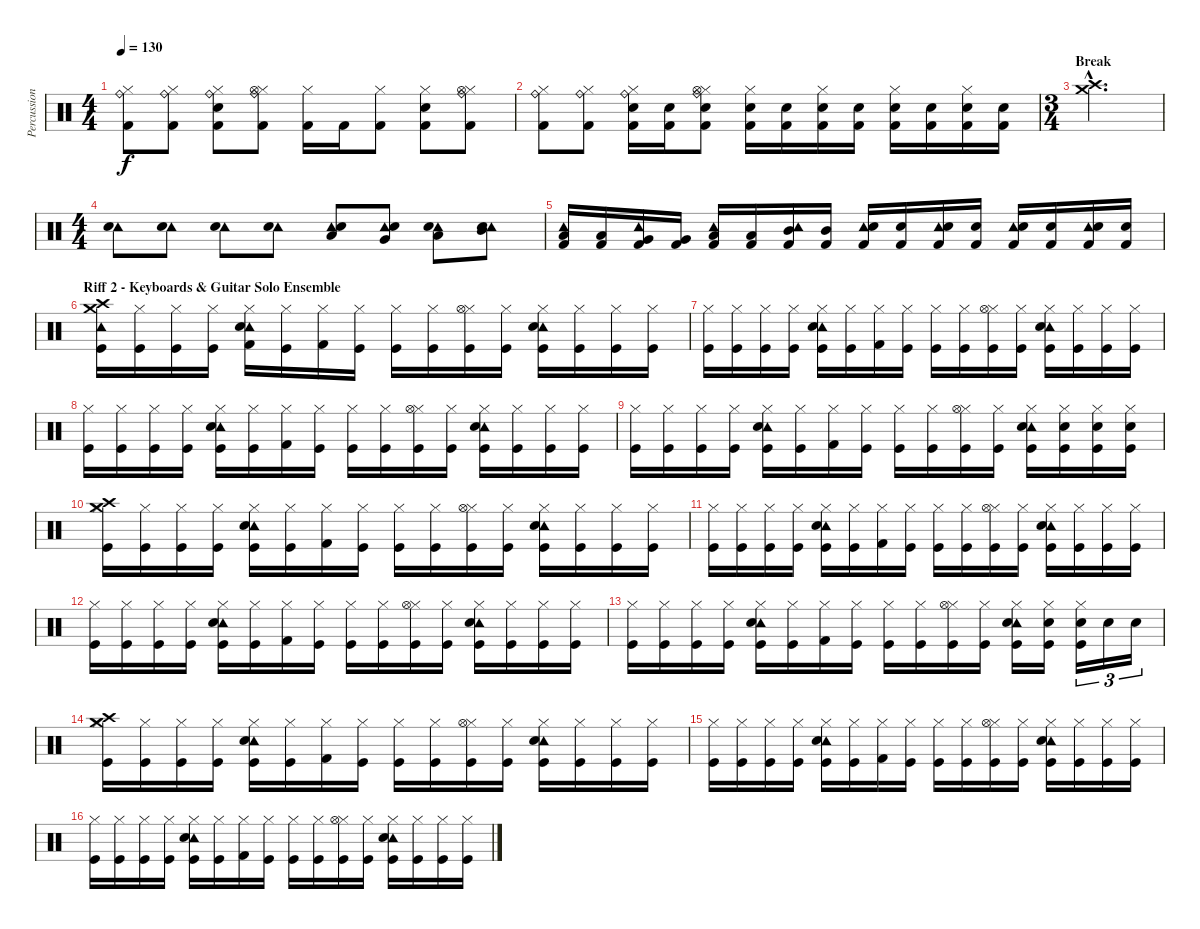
\track ("Percussion" "Percussion") {instrument percussion}
\staff {score}
\articulation defaults
\ts (4 4)
\tempo 130
\clef neutral
\ks c
("Hi-Hat (closed)" "Ride (bell)" "Kick (hit) 2").8{dy f} ("Hi-Hat (closed)" "Ride (bell)" "Kick (hit) 2").8 ("Hi-Hat (closed)" "Ride (bell)" "Electric Snare (hit)" "Kick (hit) 2").8 ("Hi-Hat (closed)" "Ride (bell)" "Hi-Hat (open)" "Kick (hit) 2").8 ("Hi-Hat (closed)" "Kick (hit) 2").16 "Kick (hit) 2".16 ("Hi-Hat (closed)" "Kick (hit) 2").8 ("Hi-Hat (closed)" "Electric Snare (hit)" "Kick (hit) 2").8 ("Hi-Hat (closed)" "Ride (bell)" "Hi-Hat (open)" "Kick (hit) 2").8 |
("Hi-Hat (closed)" "Ride (bell)" "Kick (hit) 2").8 ("Hi-Hat (closed)" "Ride (bell)" "Kick (hit) 2").8 ("Hi-Hat (closed)" "Ride (bell)" "Electric Snare (hit)" "Kick (hit) 2").16 ("Electric Snare (hit)" "Kick (hit) 2").16 ("Hi-Hat (closed)" "Ride (bell)" "Hi-Hat (open)" "Electric Snare (hit)" "Kick (hit) 2").8 ("Hi-Hat (closed)" "Electric Snare (hit)" "Kick (hit) 2").16 ("Electric Snare (hit)" "Kick (hit) 2").16 ("Hi-Hat (closed)" "Electric Snare (hit)" "Kick (hit) 2").16 ("Electric Snare (hit)" "Kick (hit) 2").16 ("Hi-Hat (closed)" "Electric Snare (hit)" "Kick (hit) 2").16 ("Electric Snare (hit)" "Kick (hit) 2").16 ("Hi-Hat (closed)" "Electric Snare (hit)" "Kick (hit) 2").16 ("Electric Snare (hit)" "Kick (hit) 2").16 |
\ts (3 4)
\section ("" "Break")
("Crash medium (hit)"{hac} "Crash high (hit)"{hac}).2{d} |
\ts (4 4)
("Tambourine (hit)" "Electric Snare (hit)").8 ("Tambourine (hit)" "Electric Snare (hit)").8 ("Tambourine (hit)" "Electric Snare (hit)").8 ("Tambourine (hit)" "Electric Snare (hit)").8 ("Low Floor Tom (hit)" "Tambourine (hit)" "Electric Snare (hit)").8 ("Very Low Tom (hit)" "Tambourine (hit)" "Electric Snare (hit)").8 ("Low Tom (hit)" "Tambourine (hit)" "Electric Snare (hit)").8 ("Mid Tom (hit)" "Tambourine (hit)" "Electric Snare (hit)").8 |
("Tambourine (hit)" "Kick (hit) 2" "Low Floor Tom (hit)").16 ("Kick (hit) 2" "Low Floor Tom (hit)").16 ("Tambourine (hit)" "Kick (hit) 2" "Very Low Tom (hit)").16 ("Kick (hit) 2" "Very Low Tom (hit)").16 ("Tambourine (hit)" "Kick (hit) 2" "Low Tom (hit)").16 ("Kick (hit) 2" "Low Tom (hit)").16 ("Tambourine (hit)" "Kick (hit) 2" "Mid Tom (hit)").16 ("Kick (hit) 2" "Mid Tom (hit)").16 ("Tambourine (hit)" "Kick (hit) 2" "Snare (hit) 2").16 ("Kick (hit) 2" "Snare (hit) 2").16 ("Tambourine (hit)" "Kick (hit) 2" "Snare (hit) 2").16 ("Kick (hit) 2" "Snare (hit) 2").16 ("Tambourine (hit)" "Kick (hit) 2" "Electric Snare (hit)").16 ("Kick (hit) 2" "Electric Snare (hit)").16 ("Tambourine (hit)" "Kick (hit) 2" "Electric Snare (hit)").16 ("Kick (hit) 2" "Electric Snare (hit)").16 |
\section ("" "Riff 2 - Keyboards & Guitar Solo Ensemble")
("Tambourine (hit)" "Crash medium (hit)" "Crash high (hit)" "Kick (hit)").16 ("Hi-Hat (closed)" "Kick (hit)").16 ("Hi-Hat (closed)" "Kick (hit)").16 ("Hi-Hat (closed)" "Kick (hit)").16 ("Hi-Hat (closed)" "Tambourine (hit)" "Electric Snare (hit)" "Kick (hit) 2").16 ("Hi-Hat (closed)" "Kick (hit)").16 ("Hi-Hat (closed)" "Kick (hit) 2").16 ("Hi-Hat (closed)" "Kick (hit)").16 ("Hi-Hat (closed)" "Kick (hit)").16 ("Hi-Hat (closed)" "Kick (hit)").16 ("Hi-Hat (closed)" "Hi-Hat (open)" "Kick (hit)").16 ("Hi-Hat (closed)" "Kick (hit)").16 ("Hi-Hat (closed)" "Tambourine (hit)" "Electric Snare (hit)" "Kick (hit)").16 ("Hi-Hat (closed)" "Kick (hit)").16 ("Hi-Hat (closed)" "Kick (hit)").16 ("Hi-Hat (closed)" "Kick (hit)").16 |
("Hi-Hat (closed)" "Kick (hit)").16 ("Hi-Hat (closed)" "Kick (hit)").16 ("Hi-Hat (closed)" "Kick (hit)").16 ("Hi-Hat (closed)" "Kick (hit)").16 ("Hi-Hat (closed)" "Tambourine (hit)" "Electric Snare (hit)" "Kick (hit)").16 ("Hi-Hat (closed)" "Kick (hit)").16 ("Hi-Hat (closed)" "Kick (hit) 2").16 ("Hi-Hat (closed)" "Kick (hit)").16 ("Hi-Hat (closed)" "Kick (hit)").16 ("Hi-Hat (closed)" "Kick (hit)").16 ("Hi-Hat (closed)" "Hi-Hat (open)" "Kick (hit)").16 ("Hi-Hat (closed)" "Kick (hit)").16 ("Hi-Hat (closed)" "Tambourine (hit)" "Electric Snare (hit)" "Kick (hit)").16 ("Hi-Hat (closed)" "Kick (hit)").16 ("Hi-Hat (closed)" "Kick (hit)").16 ("Hi-Hat (closed)" "Kick (hit)").16 |
("Hi-Hat (closed)" "Kick (hit)").16 ("Hi-Hat (closed)" "Kick (hit)").16 ("Hi-Hat (closed)" "Kick (hit)").16 ("Hi-Hat (closed)" "Kick (hit)").16 ("Hi-Hat (closed)" "Tambourine (hit)" "Electric Snare (hit)" "Kick (hit)").16 ("Hi-Hat (closed)" "Kick (hit)").16 ("Hi-Hat (closed)" "Kick (hit) 2").16 ("Hi-Hat (closed)" "Kick (hit)").16 ("Hi-Hat (closed)" "Kick (hit)").16 ("Hi-Hat (closed)" "Kick (hit)").16 ("Hi-Hat (closed)" "Hi-Hat (open)" "Kick (hit)").16 ("Hi-Hat (closed)" "Kick (hit)").16 ("Hi-Hat (closed)" "Tambourine (hit)" "Electric Snare (hit)" "Kick (hit)").16 ("Hi-Hat (closed)" "Kick (hit)").16 ("Hi-Hat (closed)" "Kick (hit)").16 ("Hi-Hat (closed)" "Kick (hit)").16 |
("Hi-Hat (closed)" "Kick (hit)").16 ("Hi-Hat (closed)" "Kick (hit)").16 ("Hi-Hat (closed)" "Kick (hit)").16 ("Hi-Hat (closed)" "Kick (hit)").16 ("Hi-Hat (closed)" "Tambourine (hit)" "Electric Snare (hit)" "Kick (hit)").16 ("Hi-Hat (closed)" "Kick (hit)").16 ("Hi-Hat (closed)" "Kick (hit) 2").16 ("Hi-Hat (closed)" "Kick (hit)").16 ("Hi-Hat (closed)" "Kick (hit)").16 ("Hi-Hat (closed)" "Kick (hit)").16 ("Hi-Hat (closed)" "Hi-Hat (open)" "Kick (hit)").16 ("Hi-Hat (closed)" "Kick (hit)").16 ("Hi-Hat (closed)" "Tambourine (hit)" "Electric Snare (hit)" "Kick (hit)").16 ("Hi-Hat (closed)" "Electric Snare (hit)" "Kick (hit)").16 ("Hi-Hat (closed)" "Electric Snare (hit)" "Kick (hit)").16 ("Hi-Hat (closed)" "Electric Snare (hit)" "Kick (hit)").16 |
("Hi-Hat (closed)" "Crash medium (hit)" "Crash high (hit)" "Kick (hit)").16 ("Hi-Hat (closed)" "Kick (hit)").16 ("Hi-Hat (closed)" "Kick (hit)").16 ("Hi-Hat (closed)" "Kick (hit)").16 ("Hi-Hat (closed)" "Tambourine (hit)" "Electric Snare (hit)" "Kick (hit)").16 ("Hi-Hat (closed)" "Kick (hit)").16 ("Hi-Hat (closed)" "Kick (hit) 2").16 ("Hi-Hat (closed)" "Kick (hit)").16 ("Hi-Hat (closed)" "Kick (hit)").16 ("Hi-Hat (closed)" "Kick (hit)").16 ("Hi-Hat (closed)" "Hi-Hat (open)" "Kick (hit)").16 ("Hi-Hat (closed)" "Kick (hit)").16 ("Hi-Hat (closed)" "Tambourine (hit)" "Electric Snare (hit)" "Kick (hit)").16 ("Hi-Hat (closed)" "Kick (hit)").16 ("Hi-Hat (closed)" "Kick (hit)").16 ("Hi-Hat (closed)" "Kick (hit)").16 |
("Hi-Hat (closed)" "Kick (hit)").16 ("Hi-Hat (closed)" "Kick (hit)").16 ("Hi-Hat (closed)" "Kick (hit)").16 ("Hi-Hat (closed)" "Kick (hit)").16 ("Hi-Hat (closed)" "Tambourine (hit)" "Electric Snare (hit)" "Kick (hit)").16 ("Hi-Hat (closed)" "Kick (hit)").16 ("Hi-Hat (closed)" "Kick (hit) 2").16 ("Hi-Hat (closed)" "Kick (hit)").16 ("Hi-Hat (closed)" "Kick (hit)").16 ("Hi-Hat (closed)" "Kick (hit)").16 ("Hi-Hat (closed)" "Hi-Hat (open)" "Kick (hit)").16 ("Hi-Hat (closed)" "Kick (hit)").16 ("Hi-Hat (closed)" "Tambourine (hit)" "Electric Snare (hit)" "Kick (hit)").16 ("Hi-Hat (closed)" "Kick (hit)").16 ("Hi-Hat (closed)" "Kick (hit)").16 ("Hi-Hat (closed)" "Kick (hit)").16 |
("Hi-Hat (closed)" "Kick (hit)").16 ("Hi-Hat (closed)" "Kick (hit)").16 ("Hi-Hat (closed)" "Kick (hit)").16 ("Hi-Hat (closed)" "Kick (hit)").16 ("Hi-Hat (closed)" "Tambourine (hit)" "Electric Snare (hit)" "Kick (hit)").16 ("Hi-Hat (closed)" "Kick (hit)").16 ("Hi-Hat (closed)" "Kick (hit) 2").16 ("Hi-Hat (closed)" "Kick (hit)").16 ("Hi-Hat (closed)" "Kick (hit)").16 ("Hi-Hat (closed)" "Kick (hit)").16 ("Hi-Hat (closed)" "Hi-Hat (open)" "Kick (hit)").16 ("Hi-Hat (closed)" "Kick (hit)").16 ("Hi-Hat (closed)" "Tambourine (hit)" "Electric Snare (hit)" "Kick (hit)").16 ("Hi-Hat (closed)" "Kick (hit)").16 ("Hi-Hat (closed)" "Kick (hit)").16 ("Hi-Hat (closed)" "Kick (hit)").16 |
("Hi-Hat (closed)" "Kick (hit)").16 ("Hi-Hat (closed)" "Kick (hit)").16 ("Hi-Hat (closed)" "Kick (hit)").16 ("Hi-Hat (closed)" "Kick (hit)").16 ("Hi-Hat (closed)" "Tambourine (hit)" "Electric Snare (hit)" "Kick (hit)").16 ("Hi-Hat (closed)" "Kick (hit)").16 ("Hi-Hat (closed)" "Kick (hit) 2").16 ("Hi-Hat (closed)" "Kick (hit)").16 ("Hi-Hat (closed)" "Kick (hit)").16 ("Hi-Hat (closed)" "Kick (hit)").16 ("Hi-Hat (closed)" "Hi-Hat (open)" "Kick (hit)").16 ("Hi-Hat (closed)" "Kick (hit)").16 ("Hi-Hat (closed)" "Tambourine (hit)" "Electric Snare (hit)" "Kick (hit)").16 ("Hi-Hat (closed)" "Electric Snare (hit)" "Kick (hit)").16 ("Hi-Hat (closed)" "Electric Snare (hit)" "Kick (hit)").16{tu (3 2)} "Electric Snare (hit)".16{tu (3 2)} "Electric Snare (hit)".16{tu (3 2)} |
("Hi-Hat (closed)" "Crash high (hit)" "Crash medium (hit)" "Kick (hit)").16 ("Hi-Hat (closed)" "Kick (hit)").16 ("Hi-Hat (closed)" "Kick (hit)").16 ("Hi-Hat (closed)" "Kick (hit)").16 ("Hi-Hat (closed)" "Tambourine (hit)" "Electric Snare (hit)" "Kick (hit)").16 ("Hi-Hat (closed)" "Kick (hit)").16 ("Hi-Hat (closed)" "Kick (hit) 2").16 ("Hi-Hat (closed)" "Kick (hit)").16 ("Hi-Hat (closed)" "Kick (hit)").16 ("Hi-Hat (closed)" "Kick (hit)").16 ("Hi-Hat (closed)" "Hi-Hat (open)" "Kick (hit)").16 ("Hi-Hat (closed)" "Kick (hit)").16 ("Hi-Hat (closed)" "Tambourine (hit)" "Electric Snare (hit)" "Kick (hit)").16 ("Hi-Hat (closed)" "Kick (hit)").16 ("Hi-Hat (closed)" "Kick (hit)").16 ("Hi-Hat (closed)" "Kick (hit)").16 |
("Hi-Hat (closed)" "Kick (hit)").16 ("Hi-Hat (closed)" "Kick (hit)").16 ("Hi-Hat (closed)" "Kick (hit)").16 ("Hi-Hat (closed)" "Kick (hit)").16 ("Hi-Hat (closed)" "Tambourine (hit)" "Electric Snare (hit)" "Kick (hit)").16 ("Hi-Hat (closed)" "Kick (hit)").16 ("Hi-Hat (closed)" "Kick (hit) 2").16 ("Hi-Hat (closed)" "Kick (hit)").16 ("Hi-Hat (closed)" "Kick (hit)").16 ("Hi-Hat (closed)" "Kick (hit)").16 ("Hi-Hat (closed)" "Hi-Hat (open)" "Kick (hit)").16 ("Hi-Hat (closed)" "Kick (hit)").16 ("Hi-Hat (closed)" "Tambourine (hit)" "Electric Snare (hit)" "Kick (hit)").16 ("Hi-Hat (closed)" "Kick (hit)").16 ("Hi-Hat (closed)" "Kick (hit)").16 ("Hi-Hat (closed)" "Kick (hit)").16 |
("Hi-Hat (closed)" "Kick (hit)").16 ("Hi-Hat (closed)" "Kick (hit)").16 ("Hi-Hat (closed)" "Kick (hit)").16 ("Hi-Hat (closed)" "Kick (hit)").16 ("Hi-Hat (closed)" "Tambourine (hit)" "Electric Snare (hit)" "Kick (hit)").16 ("Hi-Hat (closed)" "Kick (hit)").16 ("Hi-Hat (closed)" "Kick (hit) 2").16 ("Hi-Hat (closed)" "Kick (hit)").16 ("Hi-Hat (closed)" "Kick (hit)").16 ("Hi-Hat (closed)" "Kick (hit)").16 ("Hi-Hat (closed)" "Hi-Hat (open)" "Kick (hit)").16 ("Hi-Hat (closed)" "Kick (hit)").16 ("Hi-Hat (closed)" "Tambourine (hit)" "Electric Snare (hit)" "Kick (hit)").16 ("Hi-Hat (closed)" "Kick (hit)").16 ("Hi-Hat (closed)" "Kick (hit)").16 ("Hi-Hat (closed)" "Kick (hit)").16
